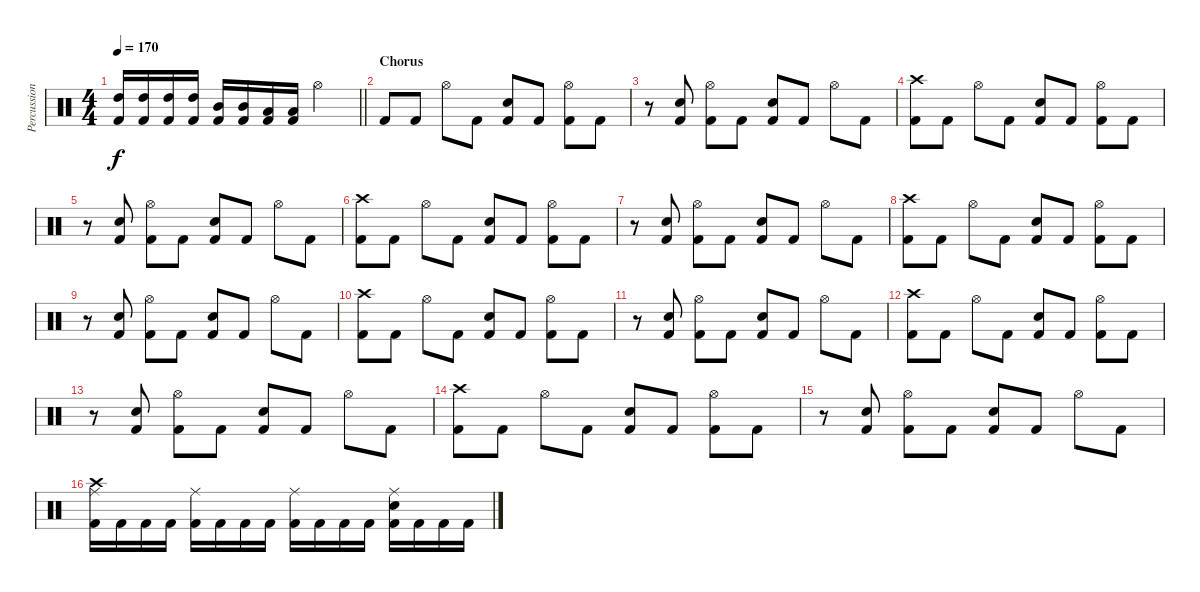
\track ("Percussion" "Percussion") {instrument percussion}
\staff {score}
\articulation defaults
\ts (4 4)
\tempo 170
\clef neutral
\barLineRight lightlight
\ks c
("High Tom (hit)" "Kick (hit) 2").16{dy f} ("High Tom (hit)" "Kick (hit) 2").16 ("High Tom (hit)" "Kick (hit) 2").16 ("High Tom (hit)" "Kick (hit) 2").16 ("Mid Tom (hit)" "Kick (hit) 2").16 ("Mid Tom (hit)" "Kick (hit) 2").16 ("Low Tom (hit)" "Kick (hit) 2").16 ("Low Tom (hit)" "Kick (hit) 2").16 "Hi-Hat (open)".2 |
\section ("" "Chorus")
"Kick (hit) 2".8 "Kick (hit) 2".8 "Hi-Hat (open)".8 "Kick (hit) 2".8 ("Snare (hit) 2" "Kick (hit) 2").8 "Kick (hit) 2".8 ("Hi-Hat (open)" "Kick (hit) 2").8 "Kick (hit) 2".8 |
r.8 ("Snare (hit) 2" "Kick (hit) 2").8 ("Hi-Hat (open)" "Kick (hit) 2").8 "Kick (hit) 2".8 ("Snare (hit) 2" "Kick (hit) 2").8 "Kick (hit) 2".8 "Hi-Hat (open)".8 "Kick (hit) 2".8 |
("Crash high (hit)" "Kick (hit) 2").8 "Kick (hit) 2".8 "Hi-Hat (open)".8 "Kick (hit) 2".8 ("Snare (hit) 2" "Kick (hit) 2").8 "Kick (hit) 2".8 ("Hi-Hat (open)" "Kick (hit) 2").8 "Kick (hit) 2".8 |
r.8 ("Snare (hit) 2" "Kick (hit) 2").8 ("Hi-Hat (open)" "Kick (hit) 2").8 "Kick (hit) 2".8 ("Snare (hit) 2" "Kick (hit) 2").8 "Kick (hit) 2".8 "Hi-Hat (open)".8 "Kick (hit) 2".8 |
("Crash high (hit)" "Kick (hit) 2").8 "Kick (hit) 2".8 "Hi-Hat (open)".8 "Kick (hit) 2".8 ("Snare (hit) 2" "Kick (hit) 2").8 "Kick (hit) 2".8 ("Hi-Hat (open)" "Kick (hit) 2").8 "Kick (hit) 2".8 |
r.8 ("Snare (hit) 2" "Kick (hit) 2").8 ("Hi-Hat (open)" "Kick (hit) 2").8 "Kick (hit) 2".8 ("Snare (hit) 2" "Kick (hit) 2").8 "Kick (hit) 2".8 "Hi-Hat (open)".8 "Kick (hit) 2".8 |
("Crash high (hit)" "Kick (hit) 2").8 "Kick (hit) 2".8 "Hi-Hat (open)".8 "Kick (hit) 2".8 ("Snare (hit) 2" "Kick (hit) 2").8 "Kick (hit) 2".8 ("Hi-Hat (open)" "Kick (hit) 2").8 "Kick (hit) 2".8 |
r.8 ("Snare (hit) 2" "Kick (hit) 2").8 ("Hi-Hat (open)" "Kick (hit) 2").8 "Kick (hit) 2".8 ("Snare (hit) 2" "Kick (hit) 2").8 "Kick (hit) 2".8 "Hi-Hat (open)".8 "Kick (hit) 2".8 |
("Crash high (hit)" "Kick (hit) 2").8 "Kick (hit) 2".8 "Hi-Hat (open)".8 "Kick (hit) 2".8 ("Snare (hit) 2" "Kick (hit) 2").8 "Kick (hit) 2".8 ("Hi-Hat (open)" "Kick (hit) 2").8 "Kick (hit) 2".8 |
r.8 ("Snare (hit) 2" "Kick (hit) 2").8 ("Hi-Hat (open)" "Kick (hit) 2").8 "Kick (hit) 2".8 ("Snare (hit) 2" "Kick (hit) 2").8 "Kick (hit) 2".8 "Hi-Hat (open)".8 "Kick (hit) 2".8 |
("Crash high (hit)" "Kick (hit) 2").8 "Kick (hit) 2".8 "Hi-Hat (open)".8 "Kick (hit) 2".8 ("Snare (hit) 2" "Kick (hit) 2").8 "Kick (hit) 2".8 ("Hi-Hat (open)" "Kick (hit) 2").8 "Kick (hit) 2".8 |
r.8 ("Snare (hit) 2" "Kick (hit) 2").8 ("Hi-Hat (open)" "Kick (hit) 2").8 "Kick (hit) 2".8 ("Snare (hit) 2" "Kick (hit) 2").8 "Kick (hit) 2".8 "Hi-Hat (open)".8 "Kick (hit) 2".8 |
("Crash high (hit)" "Kick (hit) 2").8 "Kick (hit) 2".8 "Hi-Hat (open)".8 "Kick (hit) 2".8 ("Snare (hit) 2" "Kick (hit) 2").8 "Kick (hit) 2".8 ("Hi-Hat (open)" "Kick (hit) 2").8 "Kick (hit) 2".8 |
r.8 ("Snare (hit) 2" "Kick (hit) 2").8 ("Hi-Hat (open)" "Kick (hit) 2").8 "Kick (hit) 2".8 ("Snare (hit) 2" "Kick (hit) 2").8 "Kick (hit) 2".8 "Hi-Hat (open)".8 "Kick (hit) 2".8 |
("Crash high (hit)" "Ride (middle)" "Kick (hit) 2").16 "Kick (hit) 2".16 "Kick (hit) 2".16 "Kick (hit) 2".16 ("Ride (middle)" "Kick (hit) 2").16 "Kick (hit) 2".16 "Kick (hit) 2".16 "Kick (hit) 2".16 ("Ride (middle)" "Kick (hit) 2").16 "Kick (hit) 2".16 "Kick (hit) 2".16 "Kick (hit) 2".16 ("Ride (middle)" "Snare (hit) 2" "Kick (hit) 2").16 "Kick (hit) 2".16 "Kick (hit) 2".16 "Kick (hit) 2".16
